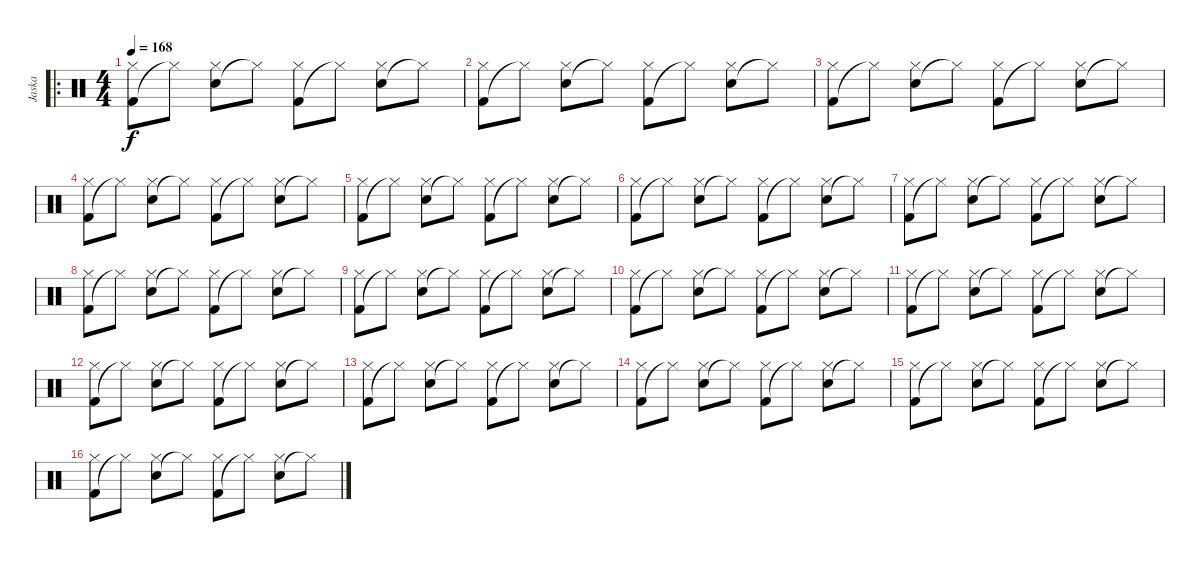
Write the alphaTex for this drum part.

\track ("Jaska" "Jaska") {instrument percussion}
\staff {score}
\articulation defaults
\ro
\ts (4 4)
\tempo 168
\clef neutral
\ks c
("Kick (hit) 2" "Hi-Hat (closed)").8{dy f} "Hi-Hat (closed)"{t}.8 ("Electric Snare (hit)" "Hi-Hat (closed)").8 "Hi-Hat (closed)"{t}.8 ("Kick (hit) 2" "Hi-Hat (closed)").8 "Hi-Hat (closed)"{t}.8 ("Electric Snare (hit)" "Hi-Hat (closed)").8 "Hi-Hat (closed)"{t}.8 |
("Kick (hit) 2" "Hi-Hat (closed)").8 "Hi-Hat (closed)"{t}.8 ("Electric Snare (hit)" "Hi-Hat (closed)").8 "Hi-Hat (closed)"{t}.8 ("Kick (hit) 2" "Hi-Hat (closed)").8 "Hi-Hat (closed)"{t}.8 ("Electric Snare (hit)" "Hi-Hat (closed)").8 "Hi-Hat (closed)"{t}.8 |
("Kick (hit) 2" "Hi-Hat (closed)").8 "Hi-Hat (closed)"{t}.8 ("Electric Snare (hit)" "Hi-Hat (closed)").8 "Hi-Hat (closed)"{t}.8 ("Kick (hit) 2" "Hi-Hat (closed)").8 "Hi-Hat (closed)"{t}.8 ("Electric Snare (hit)" "Hi-Hat (closed)").8 "Hi-Hat (closed)"{t}.8 |
("Kick (hit) 2" "Hi-Hat (closed)").8 "Hi-Hat (closed)"{t}.8 ("Electric Snare (hit)" "Hi-Hat (closed)").8 "Hi-Hat (closed)"{t}.8 ("Kick (hit) 2" "Hi-Hat (closed)").8 "Hi-Hat (closed)"{t}.8 ("Electric Snare (hit)" "Hi-Hat (closed)").8 "Hi-Hat (closed)"{t}.8 |
("Kick (hit) 2" "Hi-Hat (closed)").8 "Hi-Hat (closed)"{t}.8 ("Electric Snare (hit)" "Hi-Hat (closed)").8 "Hi-Hat (closed)"{t}.8 ("Kick (hit) 2" "Hi-Hat (closed)").8 "Hi-Hat (closed)"{t}.8 ("Electric Snare (hit)" "Hi-Hat (closed)").8 "Hi-Hat (closed)"{t}.8 |
("Kick (hit) 2" "Hi-Hat (closed)").8 "Hi-Hat (closed)"{t}.8 ("Electric Snare (hit)" "Hi-Hat (closed)").8 "Hi-Hat (closed)"{t}.8 ("Kick (hit) 2" "Hi-Hat (closed)").8 "Hi-Hat (closed)"{t}.8 ("Electric Snare (hit)" "Hi-Hat (closed)").8 "Hi-Hat (closed)"{t}.8 |
("Kick (hit) 2" "Hi-Hat (closed)").8 "Hi-Hat (closed)"{t}.8 ("Electric Snare (hit)" "Hi-Hat (closed)").8 "Hi-Hat (closed)"{t}.8 ("Kick (hit) 2" "Hi-Hat (closed)").8 "Hi-Hat (closed)"{t}.8 ("Electric Snare (hit)" "Hi-Hat (closed)").8 "Hi-Hat (closed)"{t}.8 |
("Kick (hit) 2" "Hi-Hat (closed)").8 "Hi-Hat (closed)"{t}.8 ("Electric Snare (hit)" "Hi-Hat (closed)").8 "Hi-Hat (closed)"{t}.8 ("Kick (hit) 2" "Hi-Hat (closed)").8 "Hi-Hat (closed)"{t}.8 ("Electric Snare (hit)" "Hi-Hat (closed)").8 "Hi-Hat (closed)"{t}.8 |
("Kick (hit) 2" "Hi-Hat (closed)").8 "Hi-Hat (closed)"{t}.8 ("Electric Snare (hit)" "Hi-Hat (closed)").8 "Hi-Hat (closed)"{t}.8 ("Kick (hit) 2" "Hi-Hat (closed)").8 "Hi-Hat (closed)"{t}.8 ("Electric Snare (hit)" "Hi-Hat (closed)").8 "Hi-Hat (closed)"{t}.8 |
("Kick (hit) 2" "Hi-Hat (closed)").8 "Hi-Hat (closed)"{t}.8 ("Electric Snare (hit)" "Hi-Hat (closed)").8 "Hi-Hat (closed)"{t}.8 ("Kick (hit) 2" "Hi-Hat (closed)").8 "Hi-Hat (closed)"{t}.8 ("Electric Snare (hit)" "Hi-Hat (closed)").8 "Hi-Hat (closed)"{t}.8 |
("Kick (hit) 2" "Hi-Hat (closed)").8 "Hi-Hat (closed)"{t}.8 ("Electric Snare (hit)" "Hi-Hat (closed)").8 "Hi-Hat (closed)"{t}.8 ("Kick (hit) 2" "Hi-Hat (closed)").8 "Hi-Hat (closed)"{t}.8 ("Electric Snare (hit)" "Hi-Hat (closed)").8 "Hi-Hat (closed)"{t}.8 |
("Kick (hit) 2" "Hi-Hat (closed)").8 "Hi-Hat (closed)"{t}.8 ("Electric Snare (hit)" "Hi-Hat (closed)").8 "Hi-Hat (closed)"{t}.8 ("Kick (hit) 2" "Hi-Hat (closed)").8 "Hi-Hat (closed)"{t}.8 ("Electric Snare (hit)" "Hi-Hat (closed)").8 "Hi-Hat (closed)"{t}.8 |
("Kick (hit) 2" "Hi-Hat (closed)").8 "Hi-Hat (closed)"{t}.8 ("Electric Snare (hit)" "Hi-Hat (closed)").8 "Hi-Hat (closed)"{t}.8 ("Kick (hit) 2" "Hi-Hat (closed)").8 "Hi-Hat (closed)"{t}.8 ("Electric Snare (hit)" "Hi-Hat (closed)").8 "Hi-Hat (closed)"{t}.8 |
("Kick (hit) 2" "Hi-Hat (closed)").8 "Hi-Hat (closed)"{t}.8 ("Electric Snare (hit)" "Hi-Hat (closed)").8 "Hi-Hat (closed)"{t}.8 ("Kick (hit) 2" "Hi-Hat (closed)").8 "Hi-Hat (closed)"{t}.8 ("Electric Snare (hit)" "Hi-Hat (closed)").8 "Hi-Hat (closed)"{t}.8 |
("Kick (hit) 2" "Hi-Hat (closed)").8 "Hi-Hat (closed)"{t}.8 ("Electric Snare (hit)" "Hi-Hat (closed)").8 "Hi-Hat (closed)"{t}.8 ("Kick (hit) 2" "Hi-Hat (closed)").8 "Hi-Hat (closed)"{t}.8 ("Electric Snare (hit)" "Hi-Hat (closed)").8 "Hi-Hat (closed)"{t}.8 |
("Kick (hit) 2" "Hi-Hat (closed)").8 "Hi-Hat (closed)"{t}.8 ("Electric Snare (hit)" "Hi-Hat (closed)").8 "Hi-Hat (closed)"{t}.8 ("Kick (hit) 2" "Hi-Hat (closed)").8 "Hi-Hat (closed)"{t}.8 ("Electric Snare (hit)" "Hi-Hat (closed)").8 "Hi-Hat (closed)"{t}.8
